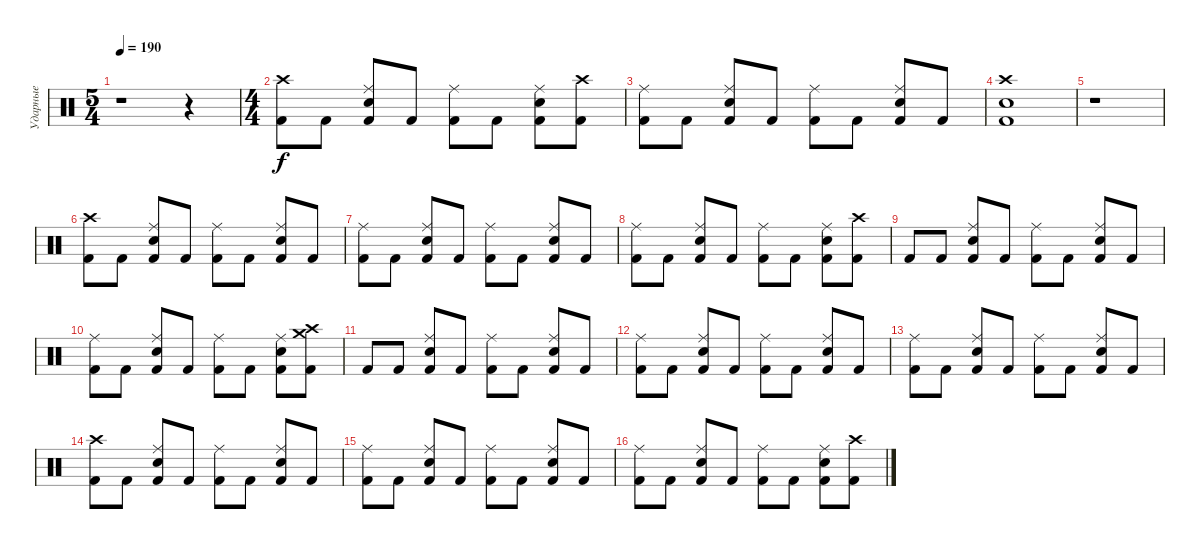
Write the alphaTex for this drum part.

\track ("Ударные" "Ударные") {instrument percussion}
\staff
\articulation defaults
\ts (5 4)
\tempo 190
\clef neutral
\ks c
r.1{dy f} r.4 |
\ts (4 4)
("Crash high (hit)" "Kick (hit) 2").8 "Kick (hit) 2".8 ("Ride (middle)" "Snare (hit) 2" "Kick (hit) 2").8 "Kick (hit) 2".8 ("Ride (middle)" "Kick (hit) 2").8 "Kick (hit) 2".8 ("Ride (middle)" "Snare (hit) 2" "Kick (hit) 2").8 ("Crash high (hit)" "Kick (hit) 2").8 |
("Ride (middle)" "Kick (hit) 2").8 "Kick (hit) 2".8 ("Ride (middle)" "Snare (hit) 2" "Kick (hit) 2").8 "Kick (hit) 2".8 ("Ride (middle)" "Kick (hit) 2").8 "Kick (hit) 2".8 ("Ride (middle)" "Snare (hit) 2" "Kick (hit) 2").8 "Kick (hit) 2".8 |
("Kick (hit) 2" "Snare (hit) 2" "Crash high (hit)").1 |
r.1 |
("Crash high (hit)" "Kick (hit) 2").8 "Kick (hit) 2".8 ("Ride (middle)" "Snare (hit) 2" "Kick (hit) 2").8 "Kick (hit) 2".8 ("Ride (middle)" "Kick (hit) 2").8 "Kick (hit) 2".8 ("Ride (middle)" "Snare (hit) 2" "Kick (hit) 2").8 "Kick (hit) 2".8 |
("Ride (middle)" "Kick (hit) 2").8 "Kick (hit) 2".8 ("Ride (middle)" "Snare (hit) 2" "Kick (hit) 2").8 "Kick (hit) 2".8 ("Ride (middle)" "Kick (hit) 2").8 "Kick (hit) 2".8 ("Ride (middle)" "Snare (hit) 2" "Kick (hit) 2").8 "Kick (hit) 2".8 |
("Ride (middle)" "Kick (hit) 2").8 "Kick (hit) 2".8 ("Ride (middle)" "Snare (hit) 2" "Kick (hit) 2").8 "Kick (hit) 2".8 ("Ride (middle)" "Kick (hit) 2").8 "Kick (hit) 2".8 ("Ride (middle)" "Snare (hit) 2" "Kick (hit) 2").8 ("Crash high (hit)" "Kick (hit) 2").8 |
"Kick (hit) 2".8 "Kick (hit) 2".8 ("Ride (middle)" "Snare (hit) 2" "Kick (hit) 2").8 "Kick (hit) 2".8 ("Ride (middle)" "Kick (hit) 2").8 "Kick (hit) 2".8 ("Ride (middle)" "Snare (hit) 2" "Kick (hit) 2").8 "Kick (hit) 2".8 |
("Ride (middle)" "Kick (hit) 2").8 "Kick (hit) 2".8 ("Ride (middle)" "Snare (hit) 2" "Kick (hit) 2").8 "Kick (hit) 2".8 ("Ride (middle)" "Kick (hit) 2").8 "Kick (hit) 2".8 ("Ride (middle)" "Snare (hit) 2" "Kick (hit) 2").8 ("Crash high (hit)" "Crash medium (hit)" "Kick (hit) 2").8 |
"Kick (hit) 2".8 "Kick (hit) 2".8 ("Ride (middle)" "Snare (hit) 2" "Kick (hit) 2").8 "Kick (hit) 2".8 ("Ride (middle)" "Kick (hit) 2").8 "Kick (hit) 2".8 ("Ride (middle)" "Snare (hit) 2" "Kick (hit) 2").8 "Kick (hit) 2".8 |
("Ride (middle)" "Kick (hit) 2").8 "Kick (hit) 2".8 ("Ride (middle)" "Snare (hit) 2" "Kick (hit) 2").8 "Kick (hit) 2".8 ("Ride (middle)" "Kick (hit) 2").8 "Kick (hit) 2".8 ("Ride (middle)" "Snare (hit) 2" "Kick (hit) 2").8 "Kick (hit) 2".8 |
("Ride (middle)" "Kick (hit) 2").8 "Kick (hit) 2".8 ("Ride (middle)" "Snare (hit) 2" "Kick (hit) 2").8 "Kick (hit) 2".8 ("Ride (middle)" "Kick (hit) 2").8 "Kick (hit) 2".8 ("Ride (middle)" "Snare (hit) 2" "Kick (hit) 2").8 "Kick (hit) 2".8 |
("Crash high (hit)" "Kick (hit) 2").8 "Kick (hit) 2".8 ("Ride (middle)" "Snare (hit) 2" "Kick (hit) 2").8 "Kick (hit) 2".8 ("Ride (middle)" "Kick (hit) 2").8 "Kick (hit) 2".8 ("Ride (middle)" "Snare (hit) 2" "Kick (hit) 2").8 "Kick (hit) 2".8 |
("Ride (middle)" "Kick (hit) 2").8 "Kick (hit) 2".8 ("Ride (middle)" "Snare (hit) 2" "Kick (hit) 2").8 "Kick (hit) 2".8 ("Ride (middle)" "Kick (hit) 2").8 "Kick (hit) 2".8 ("Ride (middle)" "Snare (hit) 2" "Kick (hit) 2").8 "Kick (hit) 2".8 |
("Ride (middle)" "Kick (hit) 2").8 "Kick (hit) 2".8 ("Ride (middle)" "Snare (hit) 2" "Kick (hit) 2").8 "Kick (hit) 2".8 ("Ride (middle)" "Kick (hit) 2").8 "Kick (hit) 2".8 ("Ride (middle)" "Snare (hit) 2" "Kick (hit) 2").8 ("Crash high (hit)" "Kick (hit) 2").8
